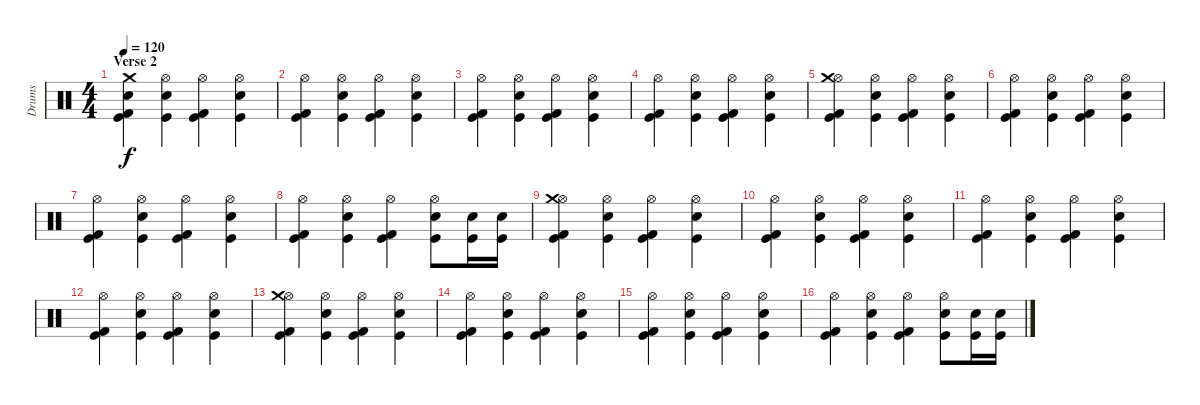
\track ("Drums" "Drums") {instrument percussion}
\staff {score}
\articulation defaults
\ts (4 4)
\section ("" "Verse 2")
\tempo 120
\clef neutral
\ks c
("Kick (hit)" "Kick (hit) 2" "Snare (hit) 2" "Crash medium (hit)").4{dy f} ("Hi-Hat (open)" "Kick (hit)" "Snare (hit) 2").4 ("Hi-Hat (open)" "Kick (hit)" "Kick (hit) 2").4 ("Hi-Hat (open)" "Kick (hit)" "Snare (hit) 2").4 |
("Hi-Hat (open)" "Kick (hit)" "Kick (hit) 2").4 ("Hi-Hat (open)" "Kick (hit)" "Snare (hit) 2").4 ("Hi-Hat (open)" "Kick (hit)" "Kick (hit) 2").4 ("Hi-Hat (open)" "Kick (hit)" "Snare (hit) 2").4 |
("Hi-Hat (open)" "Kick (hit)" "Kick (hit) 2").4 ("Hi-Hat (open)" "Kick (hit)" "Snare (hit) 2").4 ("Hi-Hat (open)" "Kick (hit)" "Kick (hit) 2").4 ("Hi-Hat (open)" "Kick (hit)" "Snare (hit) 2").4 |
("Hi-Hat (open)" "Kick (hit)" "Kick (hit) 2").4 ("Hi-Hat (open)" "Kick (hit)" "Snare (hit) 2").4 ("Hi-Hat (open)" "Kick (hit)" "Kick (hit) 2").4 ("Hi-Hat (open)" "Kick (hit)" "Snare (hit) 2").4 |
("Hi-Hat (open)" "Kick (hit)" "Kick (hit) 2" "Crash medium (hit)").4 ("Hi-Hat (open)" "Kick (hit)" "Snare (hit) 2").4 ("Hi-Hat (open)" "Kick (hit)" "Kick (hit) 2").4 ("Hi-Hat (open)" "Kick (hit)" "Snare (hit) 2").4 |
("Hi-Hat (open)" "Kick (hit)" "Kick (hit) 2").4 ("Hi-Hat (open)" "Kick (hit)" "Snare (hit) 2").4 ("Hi-Hat (open)" "Kick (hit)" "Kick (hit) 2").4 ("Hi-Hat (open)" "Kick (hit)" "Snare (hit) 2").4 |
("Hi-Hat (open)" "Kick (hit)" "Kick (hit) 2").4 ("Hi-Hat (open)" "Kick (hit)" "Snare (hit) 2").4 ("Hi-Hat (open)" "Kick (hit)" "Kick (hit) 2").4 ("Hi-Hat (open)" "Kick (hit)" "Snare (hit) 2").4 |
("Hi-Hat (open)" "Kick (hit)" "Kick (hit) 2").4 ("Hi-Hat (open)" "Kick (hit)" "Snare (hit) 2").4 ("Hi-Hat (open)" "Kick (hit)" "Kick (hit) 2").4 ("Hi-Hat (open)" "Kick (hit)" "Snare (hit) 2").8 ("Kick (hit)" "Snare (hit) 2").16 ("Kick (hit)" "Snare (hit) 2").16 |
("Hi-Hat (open)" "Kick (hit)" "Kick (hit) 2" "Crash medium (hit)").4 ("Hi-Hat (open)" "Kick (hit)" "Snare (hit) 2").4 ("Hi-Hat (open)" "Kick (hit)" "Kick (hit) 2").4 ("Hi-Hat (open)" "Kick (hit)" "Snare (hit) 2").4 |
("Hi-Hat (open)" "Kick (hit)" "Kick (hit) 2").4 ("Hi-Hat (open)" "Kick (hit)" "Snare (hit) 2").4 ("Hi-Hat (open)" "Kick (hit)" "Kick (hit) 2").4 ("Hi-Hat (open)" "Kick (hit)" "Snare (hit) 2").4 |
("Hi-Hat (open)" "Kick (hit)" "Kick (hit) 2").4 ("Hi-Hat (open)" "Kick (hit)" "Snare (hit) 2").4 ("Hi-Hat (open)" "Kick (hit)" "Kick (hit) 2").4 ("Hi-Hat (open)" "Kick (hit)" "Snare (hit) 2").4 |
("Hi-Hat (open)" "Kick (hit)" "Kick (hit) 2").4 ("Hi-Hat (open)" "Kick (hit)" "Snare (hit) 2").4 ("Hi-Hat (open)" "Kick (hit)" "Kick (hit) 2").4 ("Hi-Hat (open)" "Kick (hit)" "Snare (hit) 2").4 |
("Hi-Hat (open)" "Kick (hit)" "Kick (hit) 2" "Crash medium (hit)").4 ("Hi-Hat (open)" "Kick (hit)" "Snare (hit) 2").4 ("Hi-Hat (open)" "Kick (hit)" "Kick (hit) 2").4 ("Hi-Hat (open)" "Kick (hit)" "Snare (hit) 2").4 |
("Hi-Hat (open)" "Kick (hit)" "Kick (hit) 2").4 ("Hi-Hat (open)" "Kick (hit)" "Snare (hit) 2").4 ("Hi-Hat (open)" "Kick (hit)" "Kick (hit) 2").4 ("Hi-Hat (open)" "Kick (hit)" "Snare (hit) 2").4 |
("Hi-Hat (open)" "Kick (hit)" "Kick (hit) 2").4 ("Hi-Hat (open)" "Kick (hit)" "Snare (hit) 2").4 ("Hi-Hat (open)" "Kick (hit)" "Kick (hit) 2").4 ("Hi-Hat (open)" "Kick (hit)" "Snare (hit) 2").4 |
("Hi-Hat (open)" "Kick (hit)" "Kick (hit) 2").4 ("Hi-Hat (open)" "Kick (hit)" "Snare (hit) 2").4 ("Hi-Hat (open)" "Kick (hit)" "Kick (hit) 2").4 ("Hi-Hat (open)" "Kick (hit)" "Snare (hit) 2").8 ("Kick (hit)" "Snare (hit) 2").16 ("Kick (hit)" "Snare (hit) 2").16
